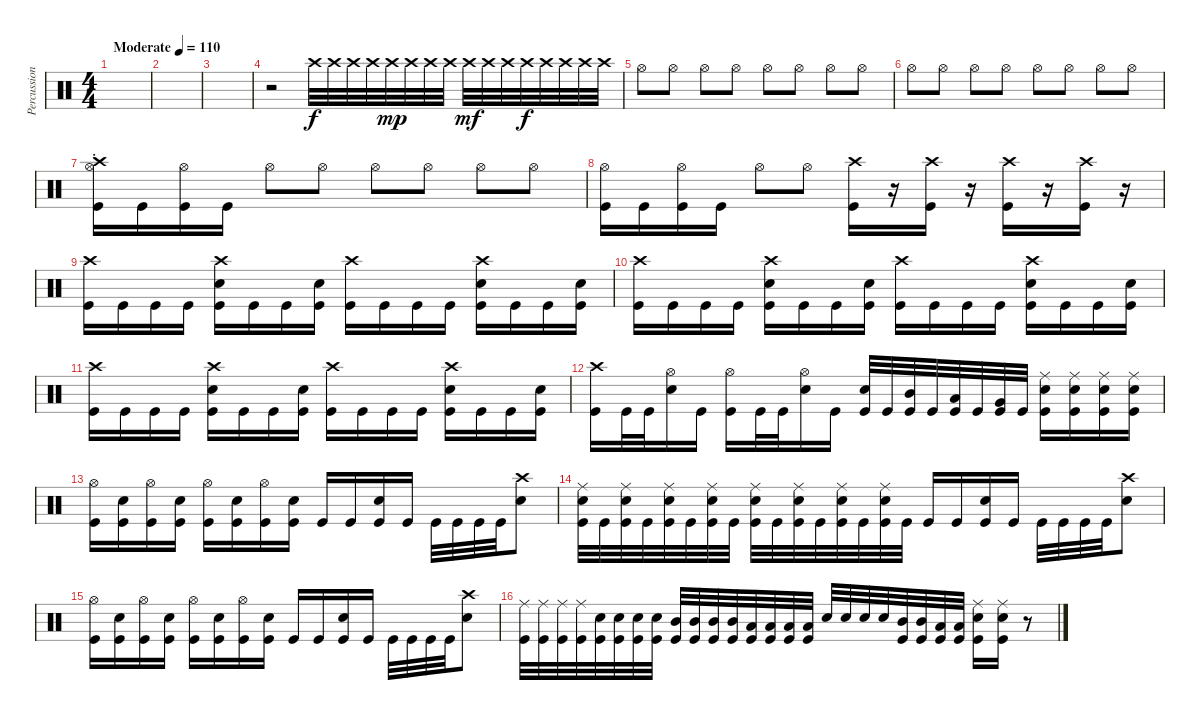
\track ("Percussion" "Percussion") {instrument percussion}
\staff {score}
\articulation defaults
\ts (4 4)
\tempo (110 "Moderate")
\clef neutral
\ks c
|
|
|
r.2 "Crash high (hit)".32 "Crash high (hit)".32 "Crash high (hit)".32 "Crash high (hit)".32 "Crash high (hit)".32{dy mp} "Crash high (hit)".32 "Crash high (hit)".32 "Crash high (hit)".32 "Crash high (hit)".32{dy mf} "Crash high (hit)".32 "Crash high (hit)".32 "Crash high (hit)".32{dy f} "Crash high (hit)".32 "Crash high (hit)".32 "Crash high (hit)".32 "Crash high (hit)".32 |
"Hi-Hat (open)".8 "Hi-Hat (open)".8 "Hi-Hat (open)".8 "Hi-Hat (open)".8 "Hi-Hat (open)".8 "Hi-Hat (open)".8 "Hi-Hat (open)".8 "Hi-Hat (open)".8 |
"Hi-Hat (open)".8 "Hi-Hat (open)".8 "Hi-Hat (open)".8 "Hi-Hat (open)".8 "Hi-Hat (open)".8 "Hi-Hat (open)".8 "Hi-Hat (open)".8 "Hi-Hat (open)".8 |
("Crash high (hit)"{st} "Hi-Hat (open)" "Kick (hit)").16 "Kick (hit)".16 ("Hi-Hat (open)" "Kick (hit)").16 "Kick (hit)".16 "Hi-Hat (open)".8 "Hi-Hat (open)".8 "Hi-Hat (open)".8 "Hi-Hat (open)".8 "Hi-Hat (open)".8 "Hi-Hat (open)".8 |
("Hi-Hat (open)" "Kick (hit)").16 "Kick (hit)".16 ("Hi-Hat (open)" "Kick (hit)").16 "Kick (hit)".16 "Hi-Hat (open)".8 "Hi-Hat (open)".8 ("Crash high (hit)" "Kick (hit)").16 r.16 ("Crash high (hit)" "Kick (hit)").16 r.16 ("Crash high (hit)" "Kick (hit)").16 r.16 ("Crash high (hit)" "Kick (hit)").16 r.16 |
("Crash high (hit)" "Kick (hit)").16 "Kick (hit)".16 "Kick (hit)".16 "Kick (hit)".16 ("Crash high (hit)" "Electric Snare (hit)" "Kick (hit)").16 "Kick (hit)".16 "Kick (hit)".16 ("Electric Snare (hit)" "Kick (hit)").16 ("Crash high (hit)" "Kick (hit)").16 "Kick (hit)".16 "Kick (hit)".16 "Kick (hit)".16 ("Crash high (hit)" "Electric Snare (hit)" "Kick (hit)").16 "Kick (hit)".16 "Kick (hit)".16 ("Electric Snare (hit)" "Kick (hit)").16 |
("Crash high (hit)" "Kick (hit)").16 "Kick (hit)".16 "Kick (hit)".16 "Kick (hit)".16 ("Crash high (hit)" "Electric Snare (hit)" "Kick (hit)").16 "Kick (hit)".16 "Kick (hit)".16 ("Electric Snare (hit)" "Kick (hit)").16 ("Crash high (hit)" "Kick (hit)").16 "Kick (hit)".16 "Kick (hit)".16 "Kick (hit)".16 ("Crash high (hit)" "Electric Snare (hit)" "Kick (hit)").16 "Kick (hit)".16 "Kick (hit)".16 ("Electric Snare (hit)" "Kick (hit)").16 |
("Crash high (hit)" "Kick (hit)").16 "Kick (hit)".16 "Kick (hit)".16 "Kick (hit)".16 ("Crash high (hit)" "Electric Snare (hit)" "Kick (hit)").16 "Kick (hit)".16 "Kick (hit)".16 ("Electric Snare (hit)" "Kick (hit)").16 ("Crash high (hit)" "Kick (hit)").16 "Kick (hit)".16 "Kick (hit)".16 "Kick (hit)".16 ("Crash high (hit)" "Electric Snare (hit)" "Kick (hit)").16 "Kick (hit)".16 "Kick (hit)".16 ("Electric Snare (hit)" "Kick (hit)").16 |
("Crash high (hit)" "Kick (hit)").16 "Kick (hit)".32 "Kick (hit)".32 ("Hi-Hat (open)" "Electric Snare (hit)").16 "Kick (hit)".16 ("Hi-Hat (open)" "Kick (hit)").16 "Kick (hit)".32 "Kick (hit)".32 ("Hi-Hat (open)" "Electric Snare (hit)").16 "Kick (hit)".16 ("Electric Snare (hit)" "Kick (hit)").32 "Kick (hit)".32 ("Mid Tom (hit)" "Kick (hit)").32 "Kick (hit)".32 ("Low Tom (hit)" "Kick (hit)").32 "Kick (hit)".32 ("Very Low Tom (hit)" "Kick (hit)").32 "Kick (hit)".32 ("Ride (middle)" "Electric Snare (hit)" "Kick (hit)").16 ("Ride (middle)" "Electric Snare (hit)" "Kick (hit)").16 ("Ride (middle)" "Electric Snare (hit)" "Kick (hit)").16 ("Ride (middle)" "Electric Snare (hit)" "Kick (hit)").16 |
("Hi-Hat (open)" "Kick (hit)").16 ("Electric Snare (hit)" "Kick (hit)").16 ("Hi-Hat (open)" "Kick (hit)").16 ("Electric Snare (hit)" "Kick (hit)").16 ("Hi-Hat (open)" "Kick (hit)").16 ("Electric Snare (hit)" "Kick (hit)").16 ("Hi-Hat (open)" "Kick (hit)").16 ("Electric Snare (hit)" "Kick (hit)").16 "Kick (hit)".16 "Kick (hit)".16 ("Electric Snare (hit)" "Kick (hit)").16 "Kick (hit)".16 "Kick (hit)".32 "Kick (hit)".32 "Kick (hit)".32 "Kick (hit)".32 ("Crash high (hit)" "Electric Snare (hit)").8 |
("Ride (middle)" "Electric Snare (hit)" "Kick (hit)").32 "Kick (hit)".32 ("Ride (middle)" "Electric Snare (hit)" "Kick (hit)").32 "Kick (hit)".32 ("Ride (middle)" "Electric Snare (hit)" "Kick (hit)").32 "Kick (hit)".32 ("Ride (middle)" "Electric Snare (hit)" "Kick (hit)").32 "Kick (hit)".32 ("Ride (middle)" "Electric Snare (hit)" "Kick (hit)").32 "Kick (hit)".32 ("Ride (middle)" "Electric Snare (hit)" "Kick (hit)").32 "Kick (hit)".32 ("Ride (middle)" "Electric Snare (hit)" "Kick (hit)").32 "Kick (hit)".32 ("Ride (middle)" "Electric Snare (hit)" "Kick (hit)").32 "Kick (hit)".32 "Kick (hit)".16 "Kick (hit)".16 ("Electric Snare (hit)" "Kick (hit)").16 "Kick (hit)".16 "Kick (hit)".32 "Kick (hit)".32 "Kick (hit)".32 "Kick (hit)".32 ("Crash high (hit)" "Electric Snare (hit)").8 |
("Hi-Hat (open)" "Kick (hit)").16 ("Electric Snare (hit)" "Kick (hit)").16 ("Hi-Hat (open)" "Kick (hit)").16 ("Electric Snare (hit)" "Kick (hit)").16 ("Hi-Hat (open)" "Kick (hit)").16 ("Electric Snare (hit)" "Kick (hit)").16 ("Hi-Hat (open)" "Kick (hit)").16 ("Electric Snare (hit)" "Kick (hit)").16 "Kick (hit)".16 "Kick (hit)".16 ("Electric Snare (hit)" "Kick (hit)").16 "Kick (hit)".16 "Kick (hit)".32 "Kick (hit)".32 "Kick (hit)".32 "Kick (hit)".32 ("Crash high (hit)" "Electric Snare (hit)").8 |
("Ride (middle)" "Kick (hit)").32 ("Ride (middle)" "Kick (hit)").32 ("Ride (middle)" "Kick (hit)").32 ("Ride (middle)" "Kick (hit)").32 ("Electric Snare (hit)" "Kick (hit)").32 ("Electric Snare (hit)" "Kick (hit)").32 ("Electric Snare (hit)" "Kick (hit)").32 ("Electric Snare (hit)" "Kick (hit)").32 ("Mid Tom (hit)" "Kick (hit)").32 ("Mid Tom (hit)" "Kick (hit)").32 ("Mid Tom (hit)" "Kick (hit)").32 ("Mid Tom (hit)" "Kick (hit)").32 ("Low Tom (hit)" "Kick (hit)").32 ("Low Tom (hit)" "Kick (hit)").32 ("Low Tom (hit)" "Kick (hit)").32 ("Low Tom (hit)" "Kick (hit)").32 "Electric Snare (hit)".32 "Electric Snare (hit)".32 "Electric Snare (hit)".32 "Electric Snare (hit)".32 ("Mid Tom (hit)" "Kick (hit)").32 ("Mid Tom (hit)" "Kick (hit)").32 ("Low Tom (hit)" "Kick (hit)").32 ("Low Tom (hit)" "Kick (hit)").32 ("Ride (middle)" "Electric Snare (hit)" "Kick (hit)").16 ("Ride (middle)" "Electric Snare (hit)" "Kick (hit)").16 r.8
